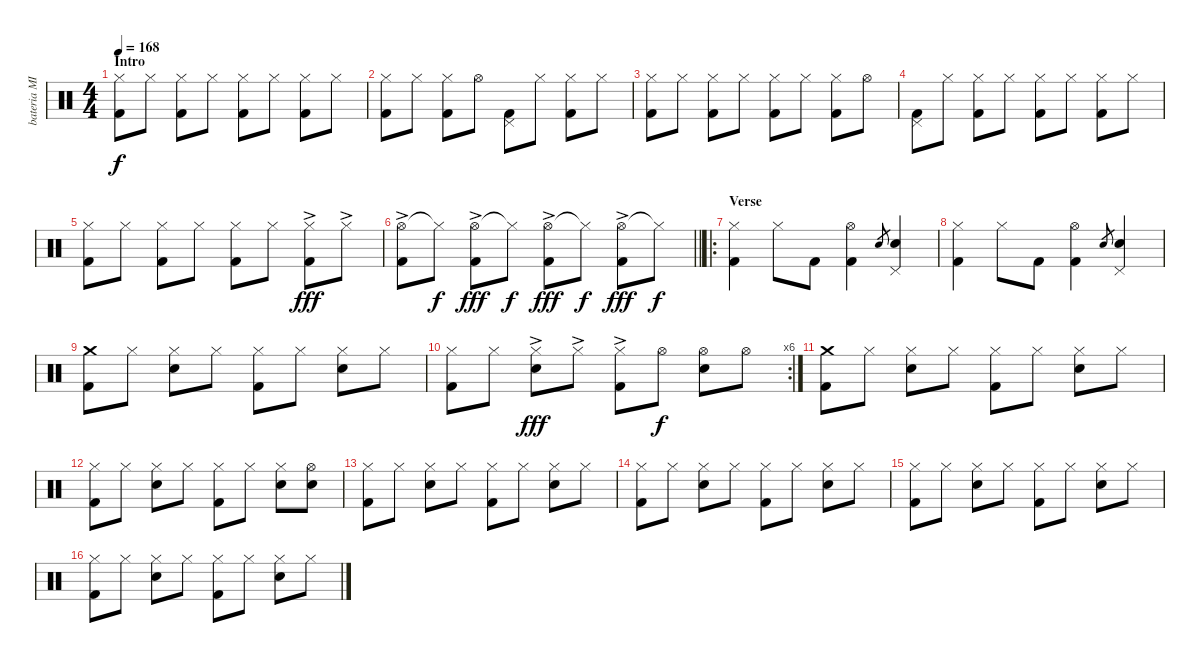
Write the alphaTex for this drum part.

\track ("bateria MIDI" "bateria MI") {instrument percussion}
\staff {score}
\articulation defaults
\ts (4 4)
\section ("" "Intro")
\tempo 168
\clef neutral
\ks c
("Hi-Hat (closed)" "Kick (hit) 2").8{dy f} "Hi-Hat (closed)".8 ("Hi-Hat (closed)" "Kick (hit) 2").8 "Hi-Hat (closed)".8 ("Hi-Hat (closed)" "Kick (hit) 2").8 "Hi-Hat (closed)".8 ("Hi-Hat (closed)" "Kick (hit) 2").8 "Hi-Hat (closed)".8 |
("Hi-Hat (closed)" "Kick (hit) 2").8 "Hi-Hat (closed)".8 ("Hi-Hat (closed)" "Kick (hit) 2").8 "Hi-Hat (open)".8 ("Pedal Hi-Hat (hit)" "Kick (hit) 2").8 "Hi-Hat (closed)".8 ("Hi-Hat (closed)" "Kick (hit) 2").8 "Hi-Hat (closed)".8 |
("Hi-Hat (closed)" "Kick (hit) 2").8 "Hi-Hat (closed)".8 ("Hi-Hat (closed)" "Kick (hit) 2").8 "Hi-Hat (closed)".8 ("Hi-Hat (closed)" "Kick (hit) 2").8 "Hi-Hat (closed)".8 ("Hi-Hat (closed)" "Kick (hit) 2").8 "Hi-Hat (open)".8 |
("Pedal Hi-Hat (hit)" "Kick (hit) 2").8 "Hi-Hat (closed)".8 ("Hi-Hat (closed)" "Kick (hit) 2").8 "Hi-Hat (closed)".8 ("Hi-Hat (closed)" "Kick (hit) 2").8 "Hi-Hat (closed)".8 ("Hi-Hat (closed)" "Kick (hit) 2").8 "Hi-Hat (closed)".8 |
("Hi-Hat (closed)" "Kick (hit) 2").8 "Hi-Hat (closed)".8 ("Hi-Hat (closed)" "Kick (hit) 2").8 "Hi-Hat (closed)".8 ("Hi-Hat (closed)" "Kick (hit) 2").8 "Hi-Hat (closed)".8 ("Hi-Hat (closed)"{ac} "Kick (hit) 2").8{dy fff} "Hi-Hat (closed)"{ac}.8 |
\barLineRight lightlight
("Hi-Hat (open)"{ac} "Kick (hit) 2").8 "Hi-Hat (closed)"{t}.8{dy f} ("Hi-Hat (open)"{ac} "Kick (hit) 2").8{dy fff} "Hi-Hat (closed)"{t}.8{dy f} ("Hi-Hat (open)"{ac} "Kick (hit) 2").8{dy fff} "Hi-Hat (closed)"{t}.8{dy f} ("Hi-Hat (open)"{ac} "Kick (hit) 2").8{dy fff} "Hi-Hat (closed)"{t}.8{dy f} |
\ro
\section ("" "Verse")
("Hi-Hat (closed)" "Kick (hit) 2").4 "Hi-Hat (closed)".8 "Kick (hit) 2".8 ("Hi-Hat (open)" "Kick (hit) 2").4 "Snare (hit) 2".8{gr} ("Pedal Hi-Hat (hit)" "Snare (hit) 2").4 |
("Hi-Hat (closed)" "Kick (hit) 2").4 "Hi-Hat (closed)".8 "Kick (hit) 2".8 ("Hi-Hat (open)" "Kick (hit) 2").4 "Snare (hit) 2".8{gr} ("Pedal Hi-Hat (hit)" "Snare (hit) 2").4 |
("Crash medium (hit)" "Kick (hit) 2").8 "Hi-Hat (closed)".8 ("Hi-Hat (closed)" "Snare (hit) 2").8 "Hi-Hat (closed)".8 ("Hi-Hat (closed)" "Kick (hit) 2").8 "Hi-Hat (closed)".8 ("Hi-Hat (closed)" "Snare (hit) 2").8 "Hi-Hat (closed)".8 |
\rc 6
("Hi-Hat (closed)" "Kick (hit) 2").8 "Hi-Hat (closed)".8 ("Hi-Hat (closed)"{ac} "Snare (hit) 2").8{dy fff} "Hi-Hat (closed)"{ac}.8 ("Hi-Hat (closed)"{ac} "Kick (hit) 2").8 "Hi-Hat (open)".8{dy f} ("Hi-Hat (open)" "Snare (hit) 2").8 "Hi-Hat (open)".8 |
("Crash medium (hit)" "Kick (hit) 2").8 "Hi-Hat (closed)".8 ("Hi-Hat (closed)" "Snare (hit) 2").8 "Hi-Hat (closed)".8 ("Hi-Hat (closed)" "Kick (hit) 2").8 "Hi-Hat (closed)".8 ("Hi-Hat (closed)" "Snare (hit) 2").8 "Hi-Hat (closed)".8 |
("Hi-Hat (closed)" "Kick (hit) 2").8 "Hi-Hat (closed)".8 ("Hi-Hat (closed)" "Snare (hit) 2").8 "Hi-Hat (closed)".8 ("Hi-Hat (closed)" "Kick (hit) 2").8 "Hi-Hat (closed)".8 ("Hi-Hat (closed)" "Snare (hit) 2").8 ("Hi-Hat (open)" "Snare (hit) 2").8 |
("Hi-Hat (closed)" "Kick (hit) 2").8 "Hi-Hat (closed)".8 ("Hi-Hat (closed)" "Snare (hit) 2").8 "Hi-Hat (closed)".8 ("Hi-Hat (closed)" "Kick (hit) 2").8 "Hi-Hat (closed)".8 ("Hi-Hat (closed)" "Snare (hit) 2").8 "Hi-Hat (closed)".8 |
("Hi-Hat (closed)" "Kick (hit) 2").8 "Hi-Hat (closed)".8 ("Hi-Hat (closed)" "Snare (hit) 2").8 "Hi-Hat (closed)".8 ("Hi-Hat (closed)" "Kick (hit) 2").8 "Hi-Hat (closed)".8 ("Hi-Hat (closed)" "Snare (hit) 2").8 "Hi-Hat (closed)".8 |
("Hi-Hat (closed)" "Kick (hit) 2").8 "Hi-Hat (closed)".8 ("Hi-Hat (closed)" "Snare (hit) 2").8 "Hi-Hat (closed)".8 ("Hi-Hat (closed)" "Kick (hit) 2").8 "Hi-Hat (closed)".8 ("Hi-Hat (closed)" "Snare (hit) 2").8 "Hi-Hat (closed)".8 |
("Hi-Hat (closed)" "Kick (hit) 2").8 "Hi-Hat (closed)".8 ("Hi-Hat (closed)" "Snare (hit) 2").8 "Hi-Hat (closed)".8 ("Hi-Hat (closed)" "Kick (hit) 2").8 "Hi-Hat (closed)".8 ("Hi-Hat (closed)" "Snare (hit) 2").8 "Hi-Hat (closed)".8
